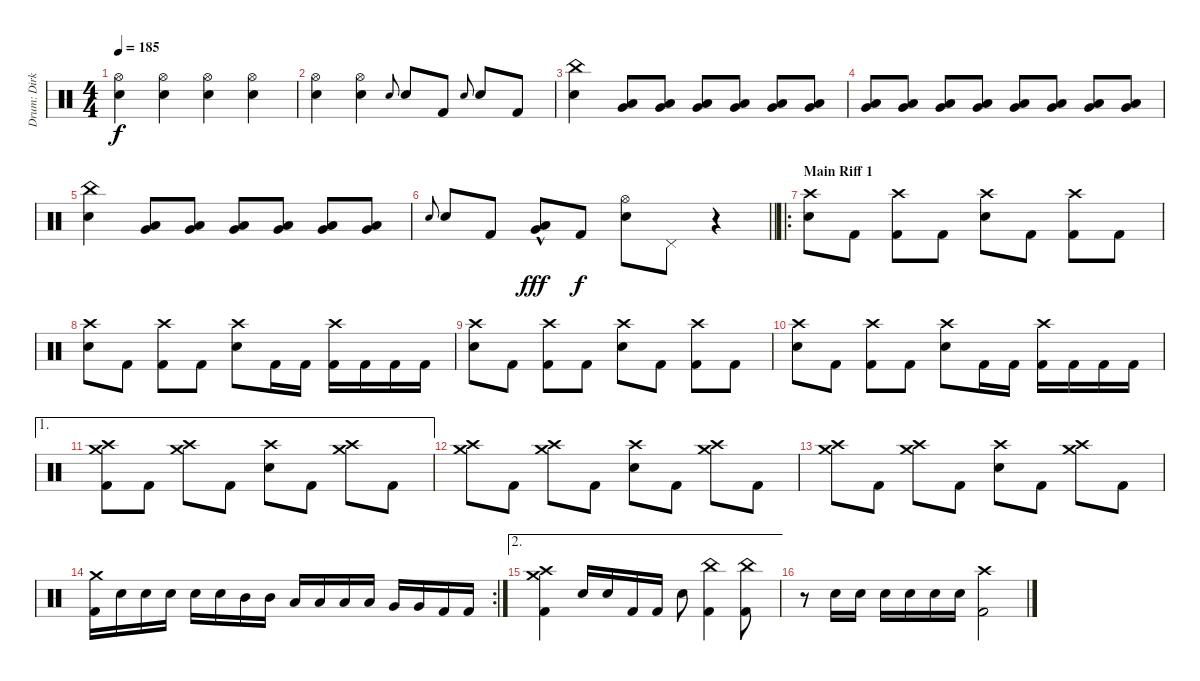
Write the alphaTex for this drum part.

\track ("Drum: Dirk" "Drum: Dirk") {instrument percussion}
\staff {score}
\articulation defaults
\ts (4 4)
\tempo 185
\clef neutral
\ks c
("Hi-Hat (open)" "Electric Snare (hit)").4{dy f} ("Hi-Hat (open)" "Electric Snare (hit)").4 ("Hi-Hat (open)" "Electric Snare (hit)").4 ("Hi-Hat (open)" "Electric Snare (hit)").4 |
("Hi-Hat (open)" "Electric Snare (hit)").4 ("Hi-Hat (open)" "Electric Snare (hit)").4 "Electric Snare (hit)".8{gr onbeat} "Electric Snare (hit)".8 "Kick (hit) 2".8 "Electric Snare (hit)".8{gr onbeat} "Electric Snare (hit)".8 "Kick (hit) 2".8 |
("China (hit)" "Electric Snare (hit)").4 ("Low Tom (hit)" "Very Low Tom (hit)").8 ("Low Tom (hit)" "Very Low Tom (hit)").8 ("Low Tom (hit)" "Very Low Tom (hit)").8 ("Low Tom (hit)" "Very Low Tom (hit)").8 ("Low Tom (hit)" "Very Low Tom (hit)").8 ("Low Tom (hit)" "Very Low Tom (hit)").8 |
("Low Tom (hit)" "Very Low Tom (hit)").8 ("Low Tom (hit)" "Very Low Tom (hit)").8 ("Low Tom (hit)" "Very Low Tom (hit)").8 ("Low Tom (hit)" "Very Low Tom (hit)").8 ("Low Tom (hit)" "Very Low Tom (hit)").8 ("Low Tom (hit)" "Very Low Tom (hit)").8 ("Low Tom (hit)" "Very Low Tom (hit)").8 ("Low Tom (hit)" "Very Low Tom (hit)").8 |
("China (hit)" "Electric Snare (hit)").4 ("Low Tom (hit)" "Very Low Tom (hit)").8 ("Low Tom (hit)" "Very Low Tom (hit)").8 ("Low Tom (hit)" "Very Low Tom (hit)").8 ("Low Tom (hit)" "Very Low Tom (hit)").8 ("Low Tom (hit)" "Very Low Tom (hit)").8 ("Low Tom (hit)" "Very Low Tom (hit)").8 |
\barLineRight lightlight "Electric Snare (hit)".8{gr onbeat} "Electric Snare (hit)".8 "Kick (hit) 2".8
("Low Tom (hit)"{hac} "Very Low Tom (hit)"{hac}).8{dy fff} "Kick (hit) 2".8{dy f} ("Hi-Hat (open)" "Electric Snare (hit)").8 "Pedal Hi-Hat (hit)".8 r.4 |
\ro
\section ("" "Main Riff 1")
("Crash high (hit)" "Electric Snare (hit)").8 "Kick (hit) 2".8 ("Crash high (hit)" "Kick (hit) 2").8 "Kick (hit) 2".8 ("Crash high (hit)" "Electric Snare (hit)").8 "Kick (hit) 2".8 ("Crash high (hit)" "Kick (hit) 2").8 "Kick (hit) 2".8 |
("Crash high (hit)" "Electric Snare (hit)").8 "Kick (hit) 2".8 ("Crash high (hit)" "Kick (hit) 2").8 "Kick (hit) 2".8 ("Crash high (hit)" "Electric Snare (hit)").8 "Kick (hit) 2".16 "Kick (hit) 2".16 ("Crash high (hit)" "Kick (hit) 2").16 "Kick (hit) 2".16 "Kick (hit) 2".16 "Kick (hit) 2".16 |
("Crash high (hit)" "Electric Snare (hit)").8 "Kick (hit) 2".8 ("Crash high (hit)" "Kick (hit) 2").8 "Kick (hit) 2".8 ("Crash high (hit)" "Electric Snare (hit)").8 "Kick (hit) 2".8 ("Crash high (hit)" "Kick (hit) 2").8 "Kick (hit) 2".8 |
("Crash high (hit)" "Electric Snare (hit)").8 "Kick (hit) 2".8 ("Crash high (hit)" "Kick (hit) 2").8 "Kick (hit) 2".8 ("Crash high (hit)" "Electric Snare (hit)").8 "Kick (hit) 2".16 "Kick (hit) 2".16 ("Crash high (hit)" "Kick (hit) 2").16 "Kick (hit) 2".16 "Kick (hit) 2".16 "Kick (hit) 2".16 |
\ae 1
("Crash high (hit)" "Crash medium (hit)" "Kick (hit) 2").8 "Kick (hit) 2".8 ("Crash high (hit)" "Crash medium (hit)").8 "Kick (hit) 2".8 ("Crash high (hit)" "Electric Snare (hit)").8 "Kick (hit) 2".8 ("Crash high (hit)" "Crash medium (hit)").8 "Kick (hit) 2".8 |
("Crash high (hit)" "Crash medium (hit)").8 "Kick (hit) 2".8 ("Crash high (hit)" "Crash medium (hit)").8 "Kick (hit) 2".8 ("Crash high (hit)" "Electric Snare (hit)").8 "Kick (hit) 2".8 ("Crash high (hit)" "Crash medium (hit)").8 "Kick (hit) 2".8 |
("Crash high (hit)" "Crash medium (hit)").8 "Kick (hit) 2".8 ("Crash high (hit)" "Crash medium (hit)").8 "Kick (hit) 2".8 ("Crash high (hit)" "Electric Snare (hit)").8 "Kick (hit) 2".8 ("Crash high (hit)" "Crash medium (hit)").8 "Kick (hit) 2".8 |
\rc 2
("Crash medium (hit)" "Kick (hit) 2").16 "Electric Snare (hit)".16 "Electric Snare (hit)".16 "Electric Snare (hit)".16 "Electric Snare (hit)".16 "Electric Snare (hit)".16 "Mid Tom (hit)".16 "Mid Tom (hit)".16 "Low Tom (hit)".16 "Low Tom (hit)".16 "Low Tom (hit)".16 "Low Tom (hit)".16 "Very Low Tom (hit)".16 "Very Low Tom (hit)".16 "Kick (hit) 2".16 "Kick (hit) 2".16 |
\ae 2
("Crash high (hit)" "Crash medium (hit)" "Kick (hit) 2").4 "Electric Snare (hit)".16 "Electric Snare (hit)".16 "Kick (hit) 2".16 "Kick (hit) 2".16 "Electric Snare (hit)".8 ("China (hit)" "Kick (hit) 2").4 ("China (hit)" "Kick (hit) 2").8 |
r.8 "Electric Snare (hit)".16 "Electric Snare (hit)".16 "Electric Snare (hit)".16 "Electric Snare (hit)".16 "Electric Snare (hit)".16 "Electric Snare (hit)".16 ("Crash high (hit)" "Kick (hit) 2").2
